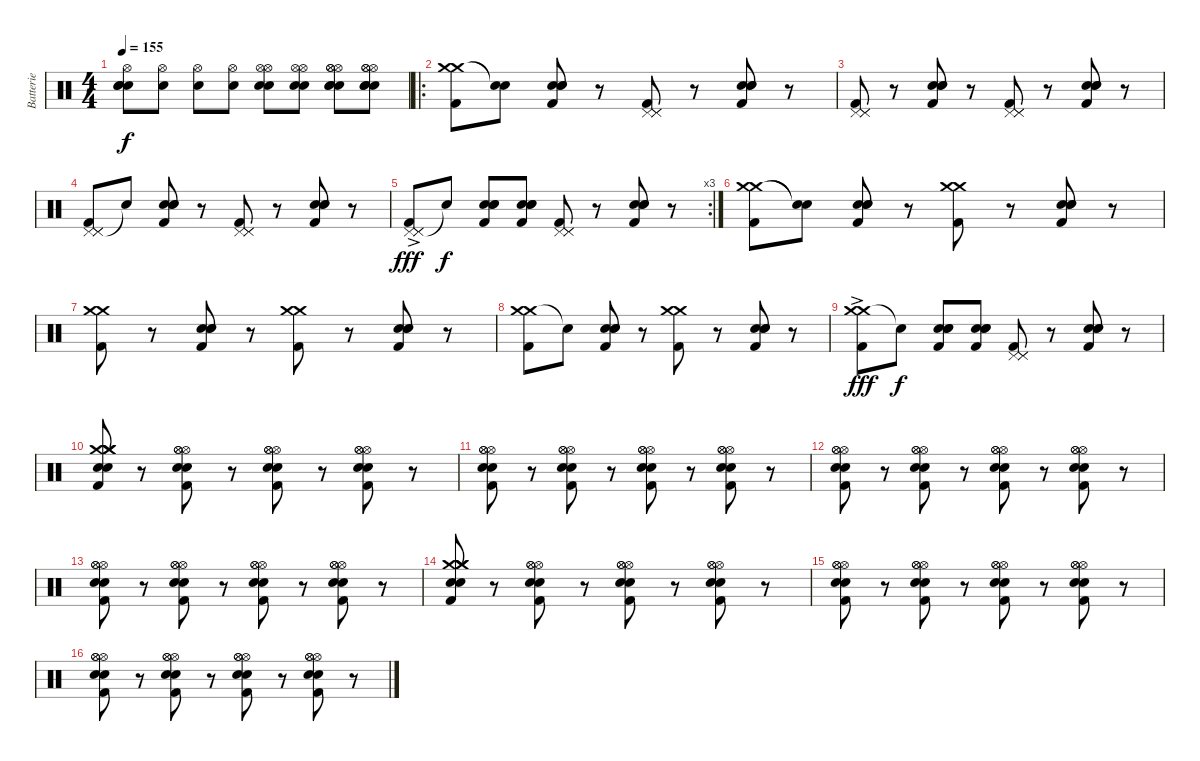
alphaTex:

\track ("Batterie" "Batterie") {instrument percussion}
\staff {score}
\articulation defaults
\ts (4 4)
\tempo 155
\clef neutral
\ks c
("Hi-Hat (open)" "Electric Snare (hit)" "Snare (hit)"{t} "Snare (hit)"{t}).8{dy f} ("Hi-Hat (open)" "Electric Snare (hit)").8 ("Hi-Hat (open)" "Electric Snare (hit)").8 ("Hi-Hat (open)" "Electric Snare (hit)").8 ("Hi-Hat (open)" "Hi-Hat (open)" "Electric Snare (hit)" "Electric Snare (hit)").8 ("Hi-Hat (open)" "Hi-Hat (open)" "Electric Snare (hit)" "Electric Snare (hit)").8 ("Hi-Hat (open)" "Hi-Hat (open)" "Hi-Hat (open)" "Electric Snare (hit)" "Electric Snare (hit)" "Electric Snare (hit)").8 ("Hi-Hat (open)" "Hi-Hat (open)" "Hi-Hat (open)" "Electric Snare (hit)" "Electric Snare (hit)" "Electric Snare (hit)").8 |
\ro
("Crash medium (hit)" "Crash medium (hit)" "Kick (hit) 2").8 ("Snare (hit)"{t} "Snare (hit)"{t}).8 ("Electric Snare (hit)" "Electric Snare (hit)" "Electric Snare (hit)" "Kick (hit) 2").8 r.8 ("Pedal Hi-Hat (hit)" "Pedal Hi-Hat (hit)" "Pedal Hi-Hat (hit)" "Kick (hit) 2").8 r.8 ("Electric Snare (hit)" "Electric Snare (hit)" "Electric Snare (hit)" "Kick (hit) 2").8 r.8 |
("Pedal Hi-Hat (hit)" "Pedal Hi-Hat (hit)" "Pedal Hi-Hat (hit)" "Kick (hit) 2").8 r.8 ("Electric Snare (hit)" "Electric Snare (hit)" "Electric Snare (hit)" "Kick (hit) 2").8 r.8 ("Pedal Hi-Hat (hit)" "Pedal Hi-Hat (hit)" "Pedal Hi-Hat (hit)" "Kick (hit) 2").8 r.8 ("Electric Snare (hit)" "Electric Snare (hit)" "Electric Snare (hit)" "Kick (hit) 2").8 r.8 |
("Pedal Hi-Hat (hit)" "Pedal Hi-Hat (hit)" "Pedal Hi-Hat (hit)" "Kick (hit) 2").8 "Snare (hit)"{t}.8 ("Electric Snare (hit)" "Electric Snare (hit)" "Electric Snare (hit)" "Kick (hit) 2").8 r.8 ("Pedal Hi-Hat (hit)" "Pedal Hi-Hat (hit)" "Pedal Hi-Hat (hit)" "Kick (hit) 2").8 r.8 ("Electric Snare (hit)" "Electric Snare (hit)" "Electric Snare (hit)" "Kick (hit) 2").8 r.8 |
\rc 3
("Pedal Hi-Hat (hit)"{ac} "Pedal Hi-Hat (hit)" "Pedal Hi-Hat (hit)" "Kick (hit) 2").8{dy fff} "Snare (hit)"{t}.8{dy f} ("Electric Snare (hit)" "Electric Snare (hit)" "Electric Snare (hit)" "Kick (hit) 2").8 ("Electric Snare (hit)" "Electric Snare (hit)" "Electric Snare (hit)" "Kick (hit) 2").8 ("Pedal Hi-Hat (hit)" "Pedal Hi-Hat (hit)" "Pedal Hi-Hat (hit)" "Kick (hit) 2").8 r.8 ("Electric Snare (hit)" "Electric Snare (hit)" "Electric Snare (hit)" "Kick (hit) 2").8 r.8 |
("Crash medium (hit)" "Crash medium (hit)" "Kick (hit) 2").8 ("Snare (hit)"{t} "Snare (hit)"{t}).8 ("Electric Snare (hit)" "Electric Snare (hit)" "Electric Snare (hit)" "Kick (hit) 2").8 r.8 ("Crash medium (hit)" "Crash medium (hit)" "Kick (hit) 2").8 r.8 ("Electric Snare (hit)" "Electric Snare (hit)" "Electric Snare (hit)" "Kick (hit) 2").8 r.8 |
("Crash medium (hit)" "Crash medium (hit)" "Kick (hit) 2").8 r.8 ("Electric Snare (hit)" "Electric Snare (hit)" "Electric Snare (hit)" "Kick (hit) 2").8 r.8 ("Crash medium (hit)" "Crash medium (hit)" "Kick (hit) 2").8 r.8 ("Electric Snare (hit)" "Electric Snare (hit)" "Electric Snare (hit)" "Kick (hit) 2").8 r.8 |
("Crash medium (hit)" "Crash medium (hit)" "Kick (hit) 2").8 "Snare (hit)"{t}.8 ("Electric Snare (hit)" "Electric Snare (hit)" "Electric Snare (hit)" "Kick (hit) 2").8 r.8 ("Crash medium (hit)" "Crash medium (hit)" "Kick (hit) 2").8 r.8 ("Electric Snare (hit)" "Electric Snare (hit)" "Electric Snare (hit)" "Kick (hit) 2").8 r.8 |
("Crash medium (hit)"{ac} "Crash medium (hit)" "Kick (hit) 2").8{dy fff} "Snare (hit)"{t}.8{dy f} ("Electric Snare (hit)" "Electric Snare (hit)" "Electric Snare (hit)" "Kick (hit) 2").8 ("Electric Snare (hit)" "Electric Snare (hit)" "Electric Snare (hit)" "Kick (hit) 2").8 ("Pedal Hi-Hat (hit)" "Pedal Hi-Hat (hit)" "Pedal Hi-Hat (hit)" "Kick (hit) 2").8 r.8 ("Electric Snare (hit)" "Electric Snare (hit)" "Electric Snare (hit)" "Kick (hit) 2").8 r.8 |
("Crash medium (hit)" "Crash medium (hit)" "Crash medium (hit)" "Electric Snare (hit)" "Electric Snare (hit)" "Kick (hit) 2").8 r.8 ("Hi-Hat (open)" "Hi-Hat (open)" "Hi-Hat (open)" "Electric Snare (hit)" "Electric Snare (hit)" "Kick (hit) 2").8 r.8 ("Hi-Hat (open)" "Hi-Hat (open)" "Hi-Hat (open)" "Electric Snare (hit)" "Electric Snare (hit)" "Kick (hit) 2").8 r.8 ("Hi-Hat (open)" "Hi-Hat (open)" "Hi-Hat (open)" "Electric Snare (hit)" "Electric Snare (hit)" "Kick (hit) 2").8 r.8 |
("Hi-Hat (open)" "Hi-Hat (open)" "Hi-Hat (open)" "Electric Snare (hit)" "Electric Snare (hit)" "Kick (hit) 2").8 r.8 ("Hi-Hat (open)" "Hi-Hat (open)" "Hi-Hat (open)" "Electric Snare (hit)" "Electric Snare (hit)" "Kick (hit) 2").8 r.8 ("Hi-Hat (open)" "Hi-Hat (open)" "Hi-Hat (open)" "Electric Snare (hit)" "Electric Snare (hit)" "Kick (hit) 2").8 r.8 ("Hi-Hat (open)" "Hi-Hat (open)" "Hi-Hat (open)" "Electric Snare (hit)" "Electric Snare (hit)" "Kick (hit) 2").8 r.8 |
("Hi-Hat (open)" "Hi-Hat (open)" "Hi-Hat (open)" "Electric Snare (hit)" "Electric Snare (hit)" "Kick (hit) 2").8 r.8 ("Hi-Hat (open)" "Hi-Hat (open)" "Hi-Hat (open)" "Electric Snare (hit)" "Electric Snare (hit)" "Kick (hit) 2").8 r.8 ("Hi-Hat (open)" "Hi-Hat (open)" "Hi-Hat (open)" "Electric Snare (hit)" "Electric Snare (hit)" "Kick (hit) 2").8 r.8 ("Hi-Hat (open)" "Hi-Hat (open)" "Hi-Hat (open)" "Electric Snare (hit)" "Electric Snare (hit)" "Kick (hit) 2").8 r.8 |
("Hi-Hat (open)" "Hi-Hat (open)" "Hi-Hat (open)" "Electric Snare (hit)" "Electric Snare (hit)" "Kick (hit) 2").8 r.8 ("Hi-Hat (open)" "Hi-Hat (open)" "Hi-Hat (open)" "Electric Snare (hit)" "Electric Snare (hit)" "Kick (hit) 2").8 r.8 ("Hi-Hat (open)" "Hi-Hat (open)" "Hi-Hat (open)" "Electric Snare (hit)" "Electric Snare (hit)" "Kick (hit) 2").8 r.8 ("Hi-Hat (open)" "Hi-Hat (open)" "Hi-Hat (open)" "Electric Snare (hit)" "Electric Snare (hit)" "Kick (hit) 2").8 r.8 |
("Crash medium (hit)" "Crash medium (hit)" "Crash medium (hit)" "Electric Snare (hit)" "Electric Snare (hit)" "Kick (hit) 2").8 r.8 ("Hi-Hat (open)" "Hi-Hat (open)" "Hi-Hat (open)" "Electric Snare (hit)" "Electric Snare (hit)" "Kick (hit) 2").8 r.8 ("Hi-Hat (open)" "Hi-Hat (open)" "Hi-Hat (open)" "Electric Snare (hit)" "Electric Snare (hit)" "Kick (hit) 2").8 r.8 ("Hi-Hat (open)" "Hi-Hat (open)" "Hi-Hat (open)" "Electric Snare (hit)" "Electric Snare (hit)" "Kick (hit) 2").8 r.8 |
("Hi-Hat (open)" "Hi-Hat (open)" "Hi-Hat (open)" "Electric Snare (hit)" "Electric Snare (hit)" "Kick (hit) 2").8 r.8 ("Hi-Hat (open)" "Hi-Hat (open)" "Hi-Hat (open)" "Electric Snare (hit)" "Electric Snare (hit)" "Kick (hit) 2").8 r.8 ("Hi-Hat (open)" "Hi-Hat (open)" "Hi-Hat (open)" "Electric Snare (hit)" "Electric Snare (hit)" "Kick (hit) 2").8 r.8 ("Hi-Hat (open)" "Hi-Hat (open)" "Hi-Hat (open)" "Electric Snare (hit)" "Electric Snare (hit)" "Kick (hit) 2").8 r.8 |
("Hi-Hat (open)" "Hi-Hat (open)" "Hi-Hat (open)" "Electric Snare (hit)" "Electric Snare (hit)" "Kick (hit) 2").8 r.8 ("Hi-Hat (open)" "Hi-Hat (open)" "Hi-Hat (open)" "Electric Snare (hit)" "Electric Snare (hit)" "Kick (hit) 2").8 r.8 ("Hi-Hat (open)" "Hi-Hat (open)" "Hi-Hat (open)" "Electric Snare (hit)" "Electric Snare (hit)" "Kick (hit) 2").8 r.8 ("Hi-Hat (open)" "Hi-Hat (open)" "Hi-Hat (open)" "Electric Snare (hit)" "Electric Snare (hit)" "Kick (hit) 2").8 r.8
